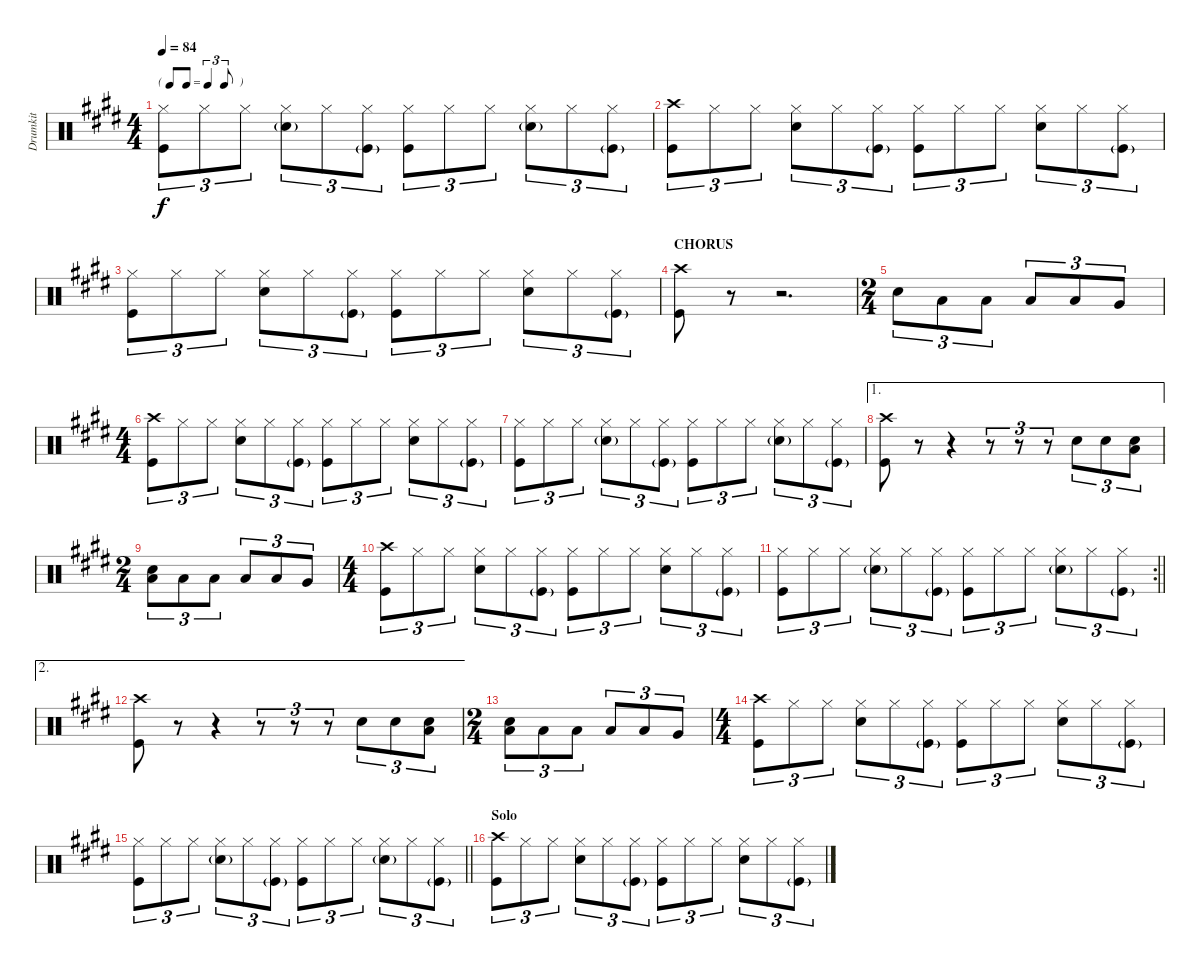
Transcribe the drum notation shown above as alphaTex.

\track ("Drumkit" "Drumkit") {instrument percussion}
\staff {score}
\articulation defaults
\ts (4 4)
\tf triplet8th
\tempo 84
\clef neutral
\ks e
("Kick (hit)" "Hi-Hat (closed)").8{tu (3 2) dy f} "Hi-Hat (closed)".8{tu (3 2)} "Hi-Hat (closed)".8{tu (3 2)} ("Hi-Hat (closed)" "Snare (hit) 2"{g}).8{tu (3 2)} "Hi-Hat (closed)".8{tu (3 2)} ("Hi-Hat (closed)" "Kick (hit)"{g}).8{tu (3 2)} ("Kick (hit)" "Hi-Hat (closed)").8{tu (3 2)} "Hi-Hat (closed)".8{tu (3 2)} "Hi-Hat (closed)".8{tu (3 2)} ("Snare (hit) 2"{g} "Hi-Hat (closed)").8{tu (3 2)} "Hi-Hat (closed)".8{tu (3 2)} ("Hi-Hat (closed)" "Kick (hit)"{g}).8{tu (3 2)} |
("Kick (hit)" "Crash high (hit)").8{tu (3 2)} "Hi-Hat (closed)".8{tu (3 2)} "Hi-Hat (closed)".8{tu (3 2)} ("Hi-Hat (closed)" "Snare (hit) 2").8{tu (3 2)} "Hi-Hat (closed)".8{tu (3 2)} ("Hi-Hat (closed)" "Kick (hit)"{g}).8{tu (3 2)} ("Kick (hit)" "Hi-Hat (closed)").8{tu (3 2)} "Hi-Hat (closed)".8{tu (3 2)} "Hi-Hat (closed)".8{tu (3 2)} ("Snare (hit) 2" "Hi-Hat (closed)").8{tu (3 2)} "Hi-Hat (closed)".8{tu (3 2)} ("Hi-Hat (closed)" "Kick (hit)"{g}).8{tu (3 2)} |
("Kick (hit)" "Hi-Hat (closed)").8{tu (3 2)} "Hi-Hat (closed)".8{tu (3 2)} "Hi-Hat (closed)".8{tu (3 2)} ("Hi-Hat (closed)" "Snare (hit) 2").8{tu (3 2)} "Hi-Hat (closed)".8{tu (3 2)} ("Hi-Hat (closed)" "Kick (hit)"{g}).8{tu (3 2)} ("Kick (hit)" "Hi-Hat (closed)").8{tu (3 2)} "Hi-Hat (closed)".8{tu (3 2)} "Hi-Hat (closed)".8{tu (3 2)} ("Snare (hit) 2" "Hi-Hat (closed)").8{tu (3 2)} "Hi-Hat (closed)".8{tu (3 2)} ("Hi-Hat (closed)" "Kick (hit)"{g}).8{tu (3 2)} |
\section ("" "CHORUS")
("Kick (hit)" "Crash high (hit)").8 r.8 r.2{d} |
\ts (2 4)
"Snare (hit) 2".8{tu (3 2)} "Low Tom (hit)".8{tu (3 2)} "Low Tom (hit)".8{tu (3 2)} "Low Tom (hit)".8{tu (3 2)} "Low Tom (hit)".8{tu (3 2)} "Very Low Tom (hit)".8{tu (3 2)} |
\ts (4 4)
("Kick (hit)" "Crash high (hit)").8{tu (3 2)} "Hi-Hat (closed)".8{tu (3 2)} "Hi-Hat (closed)".8{tu (3 2)} ("Hi-Hat (closed)" "Snare (hit) 2").8{tu (3 2)} "Hi-Hat (closed)".8{tu (3 2)} ("Hi-Hat (closed)" "Kick (hit)"{g}).8{tu (3 2)} ("Kick (hit)" "Hi-Hat (closed)").8{tu (3 2)} "Hi-Hat (closed)".8{tu (3 2)} "Hi-Hat (closed)".8{tu (3 2)} ("Snare (hit) 2" "Hi-Hat (closed)").8{tu (3 2)} "Hi-Hat (closed)".8{tu (3 2)} ("Hi-Hat (closed)" "Kick (hit)"{g}).8{tu (3 2)} |
("Kick (hit)" "Hi-Hat (closed)").8{tu (3 2)} "Hi-Hat (closed)".8{tu (3 2)} "Hi-Hat (closed)".8{tu (3 2)} ("Hi-Hat (closed)" "Snare (hit) 2"{g}).8{tu (3 2)} "Hi-Hat (closed)".8{tu (3 2)} ("Hi-Hat (closed)" "Kick (hit)"{g}).8{tu (3 2)} ("Kick (hit)" "Hi-Hat (closed)").8{tu (3 2)} "Hi-Hat (closed)".8{tu (3 2)} "Hi-Hat (closed)".8{tu (3 2)} ("Snare (hit) 2"{g} "Hi-Hat (closed)").8{tu (3 2)} "Hi-Hat (closed)".8{tu (3 2)} ("Hi-Hat (closed)" "Kick (hit)"{g}).8{tu (3 2)} |
\ae 1
("Kick (hit)" "Crash high (hit)").8 r.8 r.4 r.8{tu (3 2)} r.8{tu (3 2)} r.8{tu (3 2)} "Snare (hit) 2".8{tu (3 2)} "Snare (hit) 2".8{tu (3 2)} ("Snare (hit) 2" "Low Tom (hit)").8{tu (3 2)} |
\ts (2 4)
("Snare (hit) 2" "Low Tom (hit)").8{tu (3 2)} "Low Tom (hit)".8{tu (3 2)} "Low Tom (hit)".8{tu (3 2)} "Low Tom (hit)".8{tu (3 2)} "Low Tom (hit)".8{tu (3 2)} "Very Low Tom (hit)".8{tu (3 2)} |
\ts (4 4)
("Kick (hit)" "Crash high (hit)").8{tu (3 2)} "Hi-Hat (closed)".8{tu (3 2)} "Hi-Hat (closed)".8{tu (3 2)} ("Hi-Hat (closed)" "Snare (hit) 2").8{tu (3 2)} "Hi-Hat (closed)".8{tu (3 2)} ("Hi-Hat (closed)" "Kick (hit)"{g}).8{tu (3 2)} ("Kick (hit)" "Hi-Hat (closed)").8{tu (3 2)} "Hi-Hat (closed)".8{tu (3 2)} "Hi-Hat (closed)".8{tu (3 2)} ("Snare (hit) 2" "Hi-Hat (closed)").8{tu (3 2)} "Hi-Hat (closed)".8{tu (3 2)} ("Hi-Hat (closed)" "Kick (hit)"{g}).8{tu (3 2)} |
\rc 2
\barLineRight lightlight
("Kick (hit)" "Hi-Hat (closed)").8{tu (3 2)} "Hi-Hat (closed)".8{tu (3 2)} "Hi-Hat (closed)".8{tu (3 2)} ("Hi-Hat (closed)" "Snare (hit) 2"{g}).8{tu (3 2)} "Hi-Hat (closed)".8{tu (3 2)} ("Hi-Hat (closed)" "Kick (hit)"{g}).8{tu (3 2)} ("Kick (hit)" "Hi-Hat (closed)").8{tu (3 2)} "Hi-Hat (closed)".8{tu (3 2)} "Hi-Hat (closed)".8{tu (3 2)} ("Snare (hit) 2"{g} "Hi-Hat (closed)").8{tu (3 2)} "Hi-Hat (closed)".8{tu (3 2)} ("Hi-Hat (closed)" "Kick (hit)"{g}).8{tu (3 2)} |
\ae 2
("Kick (hit)" "Crash high (hit)").8 r.8 r.4 r.8{tu (3 2)} r.8{tu (3 2)} r.8{tu (3 2)} "Snare (hit) 2".8{tu (3 2)} "Snare (hit) 2".8{tu (3 2)} ("Snare (hit) 2" "Low Tom (hit)").8{tu (3 2)} |
\ts (2 4)
("Snare (hit) 2" "Low Tom (hit)").8{tu (3 2)} "Low Tom (hit)".8{tu (3 2)} "Low Tom (hit)".8{tu (3 2)} "Low Tom (hit)".8{tu (3 2)} "Low Tom (hit)".8{tu (3 2)} "Very Low Tom (hit)".8{tu (3 2)} |
\ts (4 4)
("Kick (hit)" "Crash high (hit)").8{tu (3 2)} "Hi-Hat (closed)".8{tu (3 2)} "Hi-Hat (closed)".8{tu (3 2)} ("Hi-Hat (closed)" "Snare (hit) 2").8{tu (3 2)} "Hi-Hat (closed)".8{tu (3 2)} ("Hi-Hat (closed)" "Kick (hit)"{g}).8{tu (3 2)} ("Kick (hit)" "Hi-Hat (closed)").8{tu (3 2)} "Hi-Hat (closed)".8{tu (3 2)} "Hi-Hat (closed)".8{tu (3 2)} ("Snare (hit) 2" "Hi-Hat (closed)").8{tu (3 2)} "Hi-Hat (closed)".8{tu (3 2)} ("Hi-Hat (closed)" "Kick (hit)"{g}).8{tu (3 2)} |
\barLineRight lightlight
("Kick (hit)" "Hi-Hat (closed)").8{tu (3 2)} "Hi-Hat (closed)".8{tu (3 2)} "Hi-Hat (closed)".8{tu (3 2)} ("Hi-Hat (closed)" "Snare (hit) 2"{g}).8{tu (3 2)} "Hi-Hat (closed)".8{tu (3 2)} ("Hi-Hat (closed)" "Kick (hit)"{g}).8{tu (3 2)} ("Kick (hit)" "Hi-Hat (closed)").8{tu (3 2)} "Hi-Hat (closed)".8{tu (3 2)} "Hi-Hat (closed)".8{tu (3 2)} ("Snare (hit) 2"{g} "Hi-Hat (closed)").8{tu (3 2)} "Hi-Hat (closed)".8{tu (3 2)} ("Hi-Hat (closed)" "Kick (hit)"{g}).8{tu (3 2)} |
\section ("" "Solo")
("Kick (hit)" "Crash high (hit)").8{tu (3 2)} "Hi-Hat (closed)".8{tu (3 2)} "Hi-Hat (closed)".8{tu (3 2)} ("Hi-Hat (closed)" "Snare (hit) 2").8{tu (3 2)} "Hi-Hat (closed)".8{tu (3 2)} ("Hi-Hat (closed)" "Kick (hit)"{g}).8{tu (3 2)} ("Kick (hit)" "Hi-Hat (closed)").8{tu (3 2)} "Hi-Hat (closed)".8{tu (3 2)} "Hi-Hat (closed)".8{tu (3 2)} ("Snare (hit) 2" "Hi-Hat (closed)").8{tu (3 2)} "Hi-Hat (closed)".8{tu (3 2)} ("Hi-Hat (closed)" "Kick (hit)"{g}).8{tu (3 2)}
